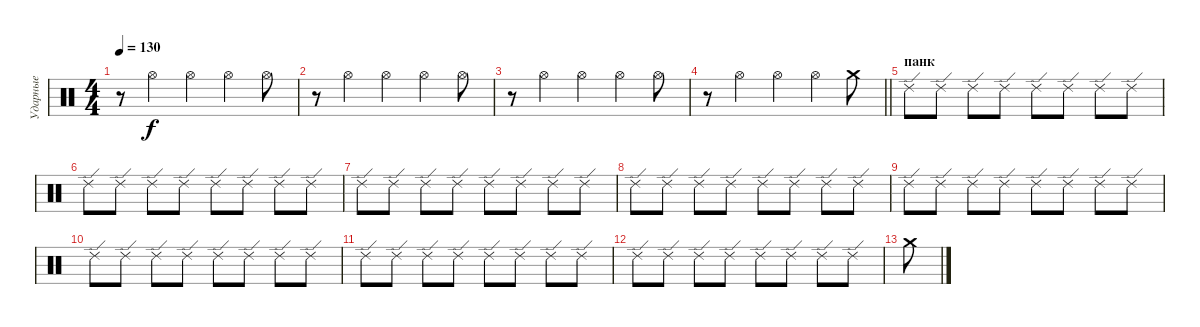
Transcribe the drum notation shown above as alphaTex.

\track ("Ударные" "Ударные") {instrument percussion}
\staff {score}
\articulation defaults
\ts (4 4)
\tempo 130
\clef neutral
\ks c
r.8{dy f} "Hi-Hat (open)".4 "Hi-Hat (open)".4 "Hi-Hat (open)".4 "Hi-Hat (open)".8 |
r.8 "Hi-Hat (open)".4 "Hi-Hat (open)".4 "Hi-Hat (open)".4 "Hi-Hat (open)".8 |
r.8 "Hi-Hat (open)".4 "Hi-Hat (open)".4 "Hi-Hat (open)".4 "Hi-Hat (open)".8 |
\barLineRight lightlight
r.8 "Hi-Hat (open)".4 "Hi-Hat (open)".4 "Hi-Hat (open)".4 "Crash medium (hit)".8 |
\section ("" "панк")
"Ride (edge) 2".8 "Ride (edge) 2".8 "Ride (edge) 2".8 "Ride (edge) 2".8 "Ride (edge) 2".8 "Ride (edge) 2".8 "Ride (edge) 2".8 "Ride (edge) 2".8 |
"Ride (edge) 2".8 "Ride (edge) 2".8 "Ride (edge) 2".8 "Ride (edge) 2".8 "Ride (edge) 2".8 "Ride (edge) 2".8 "Ride (edge) 2".8 "Ride (edge) 2".8 |
"Ride (edge) 2".8 "Ride (edge) 2".8 "Ride (edge) 2".8 "Ride (edge) 2".8 "Ride (edge) 2".8 "Ride (edge) 2".8 "Ride (edge) 2".8 "Ride (edge) 2".8 |
"Ride (edge) 2".8 "Ride (edge) 2".8 "Ride (edge) 2".8 "Ride (edge) 2".8 "Ride (edge) 2".8 "Ride (edge) 2".8 "Ride (edge) 2".8 "Ride (edge) 2".8 |
"Ride (edge) 2".8 "Ride (edge) 2".8 "Ride (edge) 2".8 "Ride (edge) 2".8 "Ride (edge) 2".8 "Ride (edge) 2".8 "Ride (edge) 2".8 "Ride (edge) 2".8 |
"Ride (edge) 2".8 "Ride (edge) 2".8 "Ride (edge) 2".8 "Ride (edge) 2".8 "Ride (edge) 2".8 "Ride (edge) 2".8 "Ride (edge) 2".8 "Ride (edge) 2".8 |
"Ride (edge) 2".8 "Ride (edge) 2".8 "Ride (edge) 2".8 "Ride (edge) 2".8 "Ride (edge) 2".8 "Ride (edge) 2".8 "Ride (edge) 2".8 "Ride (edge) 2".8 |
"Ride (edge) 2".8 "Ride (edge) 2".8 "Ride (edge) 2".8 "Ride (edge) 2".8 "Ride (edge) 2".8 "Ride (edge) 2".8 "Ride (edge) 2".8 "Ride (edge) 2".8 |
"Crash medium (hit)".8
